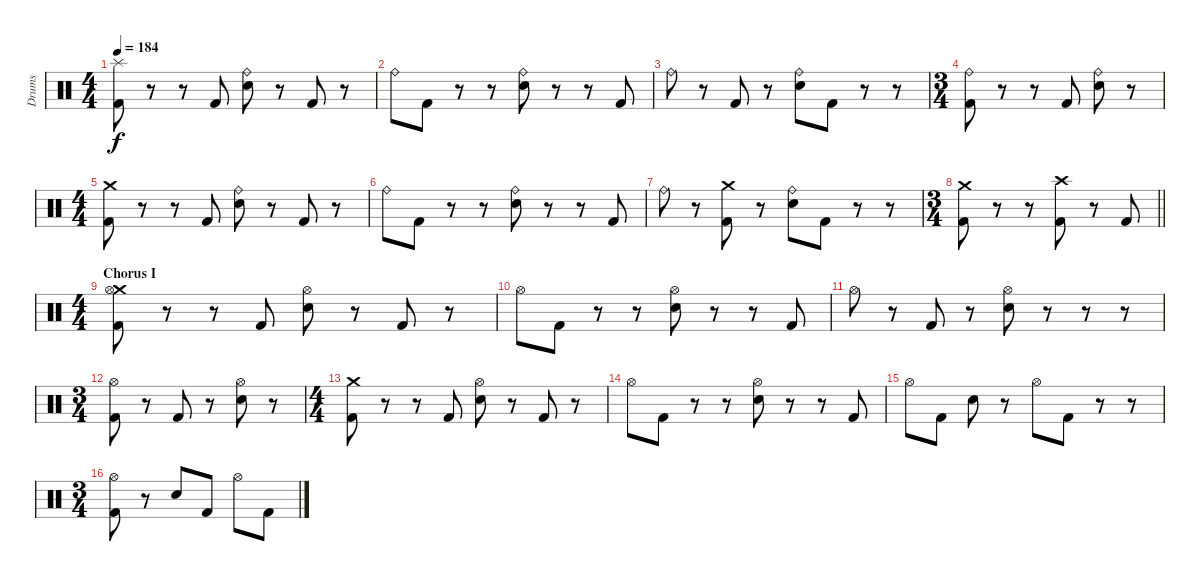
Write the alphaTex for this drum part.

\track ("Drums" "Drums") {instrument percussion}
\staff {score}
\articulation defaults
\ts (4 4)
\tempo 184
\clef neutral
\ks c
("Splash (hit)" "Kick (hit) 2").8{dy f} r.8 r.8 "Kick (hit) 2".8 ("Ride (bell)" "Snare (hit) 2").8 r.8 "Kick (hit) 2".8 r.8 |
"Ride (bell)".8 "Kick (hit) 2".8 r.8 r.8 ("Ride (bell)" "Snare (hit) 2").8 r.8 r.8 "Kick (hit) 2".8 |
"Ride (bell)".8 r.8 "Kick (hit) 2".8 r.8 ("Ride (bell)" "Snare (hit) 2").8 "Kick (hit) 2".8 r.8 r.8 |
\ts (3 4)
("Ride (bell)" "Kick (hit) 2").8 r.8 r.8 "Kick (hit) 2".8 ("Ride (bell)" "Snare (hit) 2").8 r.8 |
\ts (4 4)
("Crash medium (hit)" "Kick (hit) 2").8 r.8 r.8 "Kick (hit) 2".8 ("Ride (bell)" "Snare (hit) 2").8 r.8 "Kick (hit) 2".8 r.8 |
"Ride (bell)".8 "Kick (hit) 2".8 r.8 r.8 ("Ride (bell)" "Snare (hit) 2").8 r.8 r.8 "Kick (hit) 2".8 |
"Ride (bell)".8 r.8 ("Crash medium (hit)" "Kick (hit) 2").8 r.8 ("Ride (bell)" "Snare (hit) 2").8 "Kick (hit) 2".8 r.8 r.8 |
\ts (3 4)
\barLineRight lightlight
("Crash medium (hit)" "Kick (hit) 2").8 r.8 r.8 ("Crash high (hit)" "Kick (hit) 2").8 r.8 "Kick (hit) 2".8 |
\ts (4 4)
\section ("" "Chorus I")
("Crash medium (hit)" "Hi-Hat (open)" "Kick (hit) 2").8 r.8 r.8 "Kick (hit) 2".8 ("Hi-Hat (open)" "Snare (hit) 2").8 r.8 "Kick (hit) 2".8 r.8 |
"Hi-Hat (open)".8 "Kick (hit) 2".8 r.8 r.8 ("Hi-Hat (open)" "Snare (hit) 2").8 r.8 r.8 "Kick (hit) 2".8 |
"Hi-Hat (open)".8 r.8 "Kick (hit) 2".8 r.8 ("Hi-Hat (open)" "Snare (hit) 2").8 r.8 r.8 r.8 |
\ts (3 4)
("Hi-Hat (open)" "Kick (hit) 2").8 r.8 "Kick (hit) 2".8 r.8 ("Hi-Hat (open)" "Snare (hit) 2").8 r.8 |
\ts (4 4)
("Crash medium (hit)" "Kick (hit) 2").8 r.8 r.8 "Kick (hit) 2".8 ("Hi-Hat (open)" "Snare (hit) 2").8 r.8 "Kick (hit) 2".8 r.8 |
"Hi-Hat (open)".8 "Kick (hit) 2".8 r.8 r.8 ("Hi-Hat (open)" "Snare (hit) 2").8 r.8 r.8 "Kick (hit) 2".8 |
"Hi-Hat (open)".8 "Kick (hit) 2".8 "Snare (hit) 2".8 r.8 "Hi-Hat (open)".8 "Kick (hit) 2".8 r.8 r.8 |
\ts (3 4)
("Hi-Hat (open)" "Kick (hit) 2").8 r.8 "Snare (hit) 2".8 "Kick (hit) 2".8 "Hi-Hat (open)".8 "Kick (hit) 2".8
